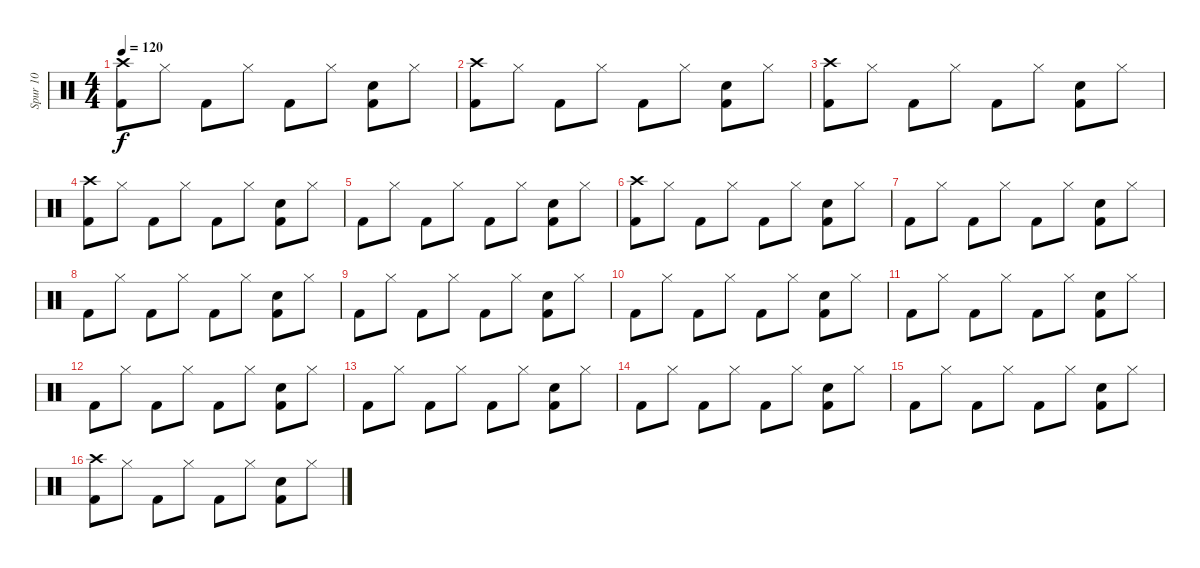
\track ("Spur 10" "Spur 10") {instrument percussion}
\staff {score}
\articulation defaults
\ts (4 4)
\tempo 120
\clef neutral
\ks c
("Kick (hit) 2" "Crash high (hit)").8{dy f} "Hi-Hat (closed)".8 "Kick (hit) 2".8 "Hi-Hat (closed)".8 "Kick (hit) 2".8 "Hi-Hat (closed)".8 ("Kick (hit) 2" "Hand Clap (hit)").8 "Hi-Hat (closed)".8 |
("Kick (hit) 2" "Crash high (hit)").8 "Hi-Hat (closed)".8 "Kick (hit) 2".8 "Hi-Hat (closed)".8 "Kick (hit) 2".8 "Hi-Hat (closed)".8 ("Kick (hit) 2" "Hand Clap (hit)").8 "Hi-Hat (closed)".8 |
("Kick (hit) 2" "Crash high (hit)").8 "Hi-Hat (closed)".8 "Kick (hit) 2".8 "Hi-Hat (closed)".8 "Kick (hit) 2".8 "Hi-Hat (closed)".8 ("Kick (hit) 2" "Hand Clap (hit)").8 "Hi-Hat (closed)".8 |
("Kick (hit) 2" "Crash high (hit)").8 "Hi-Hat (closed)".8 "Kick (hit) 2".8 "Hi-Hat (closed)".8 "Kick (hit) 2".8 "Hi-Hat (closed)".8 ("Kick (hit) 2" "Hand Clap (hit)").8 "Hi-Hat (closed)".8 |
"Kick (hit) 2".8 "Hi-Hat (closed)".8 "Kick (hit) 2".8 "Hi-Hat (closed)".8 "Kick (hit) 2".8 "Hi-Hat (closed)".8 ("Kick (hit) 2" "Hand Clap (hit)").8 "Hi-Hat (closed)".8 |
("Kick (hit) 2" "Crash high (hit)").8 "Hi-Hat (closed)".8 "Kick (hit) 2".8 "Hi-Hat (closed)".8 "Kick (hit) 2".8 "Hi-Hat (closed)".8 ("Kick (hit) 2" "Hand Clap (hit)").8 "Hi-Hat (closed)".8 |
"Kick (hit) 2".8 "Hi-Hat (closed)".8 "Kick (hit) 2".8 "Hi-Hat (closed)".8 "Kick (hit) 2".8 "Hi-Hat (closed)".8 ("Kick (hit) 2" "Hand Clap (hit)").8 "Hi-Hat (closed)".8 |
"Kick (hit) 2".8 "Hi-Hat (closed)".8 "Kick (hit) 2".8 "Hi-Hat (closed)".8 "Kick (hit) 2".8 "Hi-Hat (closed)".8 ("Kick (hit) 2" "Hand Clap (hit)").8 "Hi-Hat (closed)".8 |
"Kick (hit) 2".8 "Hi-Hat (closed)".8 "Kick (hit) 2".8 "Hi-Hat (closed)".8 "Kick (hit) 2".8 "Hi-Hat (closed)".8 ("Kick (hit) 2" "Hand Clap (hit)").8 "Hi-Hat (closed)".8 |
"Kick (hit) 2".8 "Hi-Hat (closed)".8 "Kick (hit) 2".8 "Hi-Hat (closed)".8 "Kick (hit) 2".8 "Hi-Hat (closed)".8 ("Kick (hit) 2" "Hand Clap (hit)").8 "Hi-Hat (closed)".8 |
"Kick (hit) 2".8 "Hi-Hat (closed)".8 "Kick (hit) 2".8 "Hi-Hat (closed)".8 "Kick (hit) 2".8 "Hi-Hat (closed)".8 ("Kick (hit) 2" "Hand Clap (hit)").8 "Hi-Hat (closed)".8 |
"Kick (hit) 2".8 "Hi-Hat (closed)".8 "Kick (hit) 2".8 "Hi-Hat (closed)".8 "Kick (hit) 2".8 "Hi-Hat (closed)".8 ("Kick (hit) 2" "Hand Clap (hit)").8 "Hi-Hat (closed)".8 |
"Kick (hit) 2".8 "Hi-Hat (closed)".8 "Kick (hit) 2".8 "Hi-Hat (closed)".8 "Kick (hit) 2".8 "Hi-Hat (closed)".8 ("Kick (hit) 2" "Hand Clap (hit)").8 "Hi-Hat (closed)".8 |
"Kick (hit) 2".8 "Hi-Hat (closed)".8 "Kick (hit) 2".8 "Hi-Hat (closed)".8 "Kick (hit) 2".8 "Hi-Hat (closed)".8 ("Kick (hit) 2" "Hand Clap (hit)").8 "Hi-Hat (closed)".8 |
"Kick (hit) 2".8 "Hi-Hat (closed)".8 "Kick (hit) 2".8 "Hi-Hat (closed)".8 "Kick (hit) 2".8 "Hi-Hat (closed)".8 ("Kick (hit) 2" "Hand Clap (hit)").8 "Hi-Hat (closed)".8 |
("Kick (hit) 2" "Crash high (hit)").8 "Hi-Hat (closed)".8 "Kick (hit) 2".8 "Hi-Hat (closed)".8 "Kick (hit) 2".8 "Hi-Hat (closed)".8 ("Kick (hit) 2" "Hand Clap (hit)").8 "Hi-Hat (closed)".8
